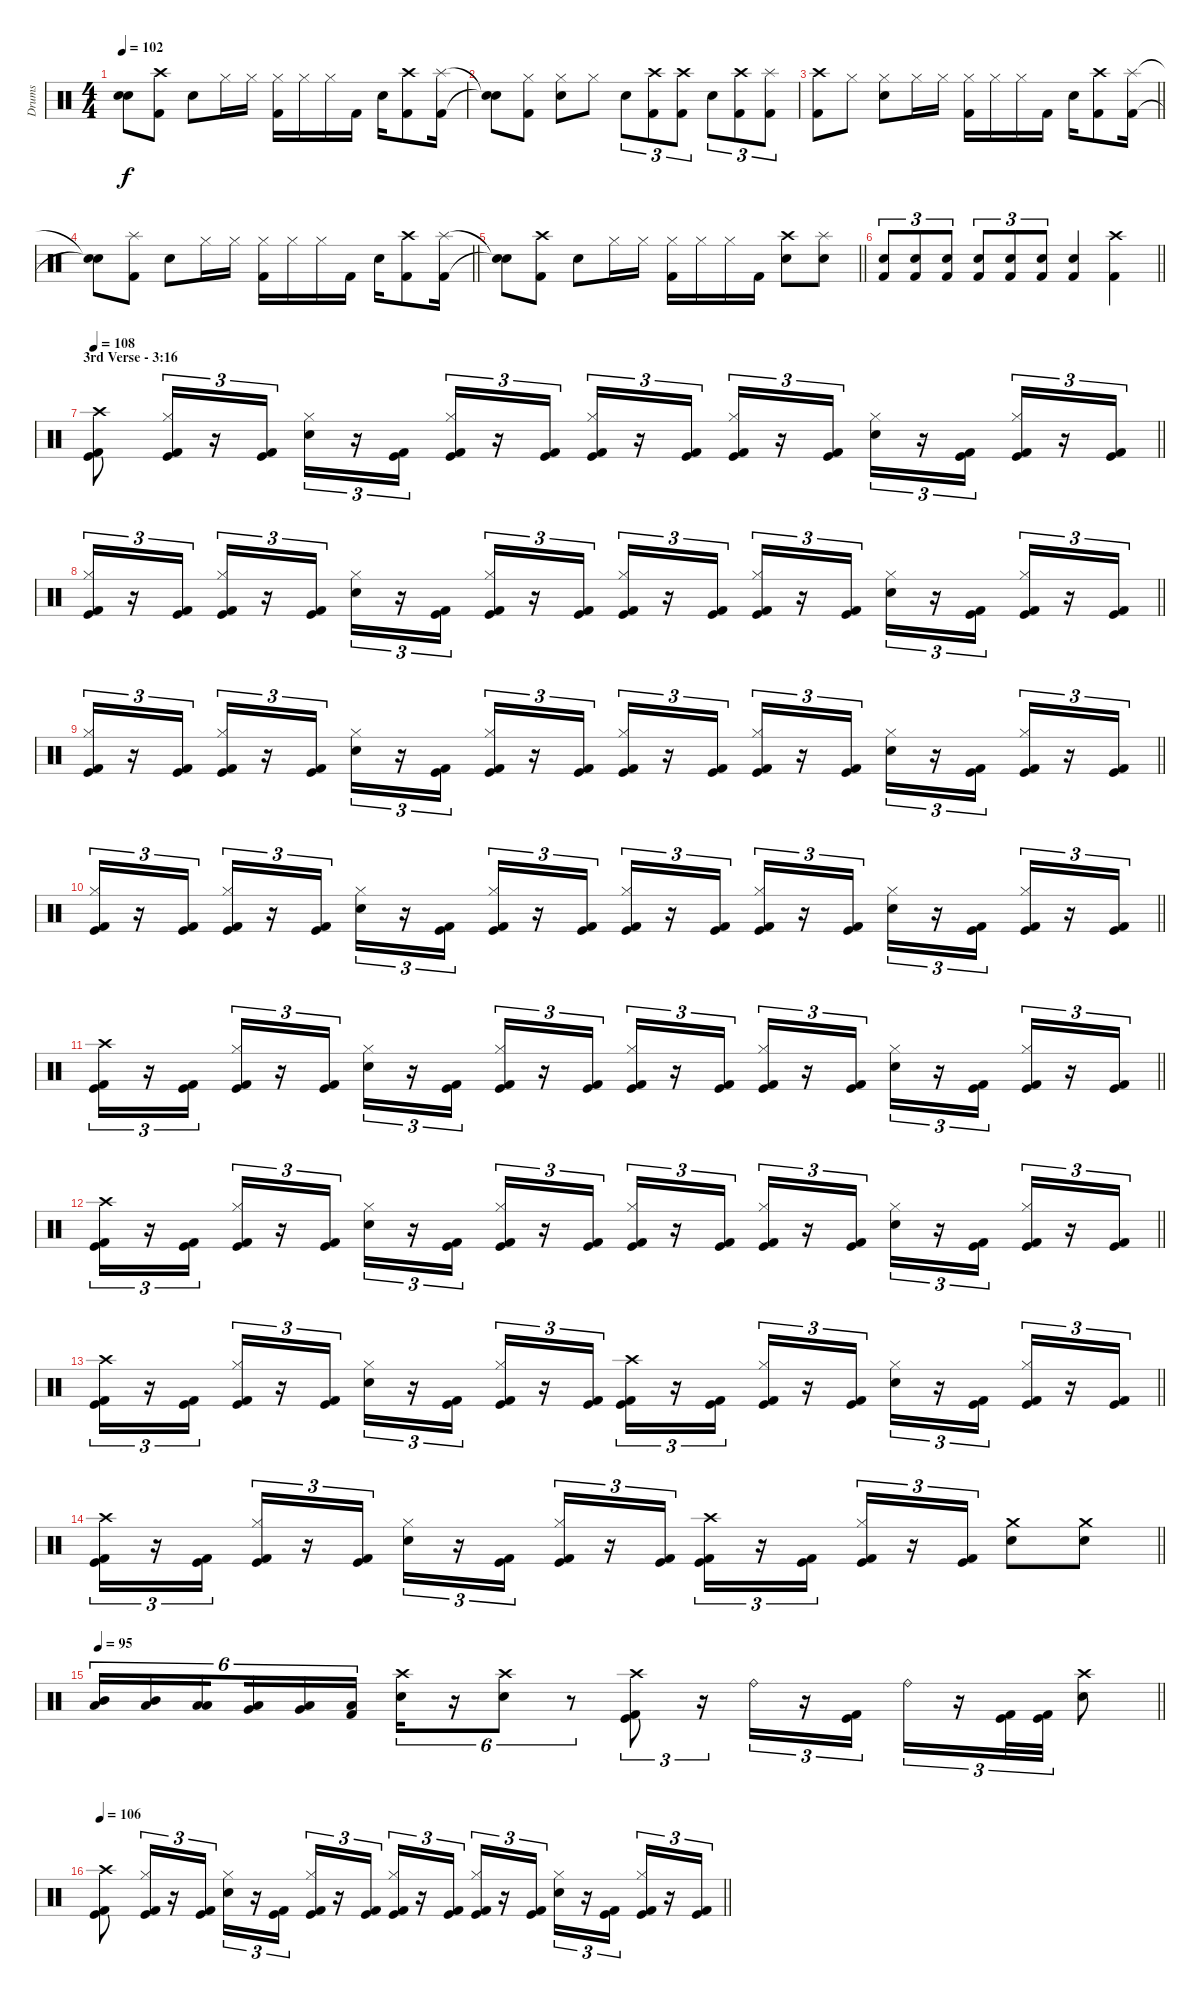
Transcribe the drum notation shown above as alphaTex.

\track ("Drums" "Drums") {instrument percussion}
\staff {score}
\articulation defaults
\ts (4 4)
\tempo 102
\clef neutral
\ks c
("Snare (hit)"{t} "Snare (hit)"{t}).8{dy f} ("Crash high (hit)" "Kick (hit) 2").8 "Electric Snare (hit)".8 "Hi-Hat (closed)".16 "Hi-Hat (closed)".16 ("Hi-Hat (closed)" "Kick (hit) 2").16 "Hi-Hat (closed)".16 "Hi-Hat (closed)".16 "Kick (hit) 2".16 "Electric Snare (hit)".16 ("Crash high (hit)" "Kick (hit) 2").8 ("Splash (hit)" "Kick (hit) 2").16 |
("Snare (hit)"{t} "Snare (hit)"{t}).8 ("Hi-Hat (closed)" "Kick (hit) 2").8 ("Hi-Hat (closed)" "Electric Snare (hit)").8 "Hi-Hat (closed)".8 "Electric Snare (hit)".8{tu (3 2)} ("Crash high (hit)" "Kick (hit) 2").8{tu (3 2)} ("Crash high (hit)" "Kick (hit) 2").8{tu (3 2)} "Electric Snare (hit)".8{tu (3 2)} ("Crash high (hit)" "Kick (hit) 2").8{tu (3 2)} ("Splash (hit)" "Kick (hit) 2").8{tu (3 2)} |
\barLineRight lightlight
("Crash high (hit)" "Kick (hit) 2").8 "Hi-Hat (closed)".8 ("Hi-Hat (closed)" "Electric Snare (hit)").8 "Hi-Hat (closed)".16 "Hi-Hat (closed)".16 ("Hi-Hat (closed)" "Kick (hit) 2").16 "Hi-Hat (closed)".16 "Hi-Hat (closed)".16 "Kick (hit) 2".16 "Electric Snare (hit)".16 ("Crash high (hit)" "Kick (hit) 2").8 ("Splash (hit)" "Kick (hit) 2").16 |
\barLineRight lightlight
("Snare (hit)"{t} "Snare (hit)"{t}).8 ("Splash (hit)" "Kick (hit) 2").8 "Electric Snare (hit)".8 "Hi-Hat (closed)".16 "Hi-Hat (closed)".16 ("Hi-Hat (closed)" "Kick (hit) 2").16 "Hi-Hat (closed)".16 "Hi-Hat (closed)".16 "Kick (hit) 2".16 "Electric Snare (hit)".16 ("Crash high (hit)" "Kick (hit) 2").8 ("Splash (hit)" "Kick (hit) 2").16 |
\barLineRight lightlight
("Snare (hit)"{t} "Snare (hit)"{t}).8 ("Crash high (hit)" "Kick (hit) 2").8 "Electric Snare (hit)".8 "Hi-Hat (closed)".16 "Hi-Hat (closed)".16 ("Hi-Hat (closed)" "Kick (hit) 2").16 "Hi-Hat (closed)".16 "Hi-Hat (closed)".16 "Kick (hit) 2".16 ("Crash high (hit)" "Electric Snare (hit)").8 ("Splash (hit)" "Electric Snare (hit)").8 |
\barLineRight lightlight
("Electric Snare (hit)" "Kick (hit) 2").8{tu (3 2)} ("Electric Snare (hit)" "Kick (hit) 2").8{tu (3 2)} ("Electric Snare (hit)" "Kick (hit) 2").8{tu (3 2)} ("Electric Snare (hit)" "Kick (hit) 2").8{tu (3 2)} ("Electric Snare (hit)" "Kick (hit) 2").8{tu (3 2)} ("Electric Snare (hit)" "Kick (hit) 2").8{tu (3 2)} ("Electric Snare (hit)" "Kick (hit) 2").4 ("Crash high (hit)" "Kick (hit) 2").4 |
\section ("" "3rd Verse - 3:16")
\tempo 108
\barLineRight lightlight
("Crash high (hit)" "Kick (hit)" "Kick (hit) 2").8 ("Hi-Hat (closed)" "Kick (hit)" "Kick (hit) 2").16{tu (3 2)} r.16{tu (3 2)} ("Kick (hit)" "Kick (hit) 2").16{tu (3 2)} ("Hi-Hat (closed)" "Electric Snare (hit)").16{tu (3 2)} r.16{tu (3 2)} ("Kick (hit)" "Kick (hit) 2").16{tu (3 2)} ("Hi-Hat (closed)" "Kick (hit)" "Kick (hit) 2").16{tu (3 2)} r.16{tu (3 2)} ("Kick (hit)" "Kick (hit) 2").16{tu (3 2)} ("Hi-Hat (closed)" "Kick (hit)" "Kick (hit) 2").16{tu (3 2)} r.16{tu (3 2)} ("Kick (hit)" "Kick (hit) 2").16{tu (3 2)} ("Hi-Hat (closed)" "Kick (hit)" "Kick (hit) 2").16{tu (3 2)} r.16{tu (3 2)} ("Kick (hit)" "Kick (hit) 2").16{tu (3 2)} ("Hi-Hat (closed)" "Electric Snare (hit)").16{tu (3 2)} r.16{tu (3 2)} ("Kick (hit)" "Kick (hit) 2").16{tu (3 2)} ("Hi-Hat (closed)" "Kick (hit)" "Kick (hit) 2").16{tu (3 2)} r.16{tu (3 2)} ("Kick (hit)" "Kick (hit) 2").16{tu (3 2)} |
\barLineRight lightlight
("Hi-Hat (closed)" "Kick (hit)" "Kick (hit) 2").16{tu (3 2)} r.16{tu (3 2)} ("Kick (hit)" "Kick (hit) 2").16{tu (3 2)} ("Hi-Hat (closed)" "Kick (hit)" "Kick (hit) 2").16{tu (3 2)} r.16{tu (3 2)} ("Kick (hit)" "Kick (hit) 2").16{tu (3 2)} ("Hi-Hat (closed)" "Electric Snare (hit)").16{tu (3 2)} r.16{tu (3 2)} ("Kick (hit)" "Kick (hit) 2").16{tu (3 2)} ("Hi-Hat (closed)" "Kick (hit)" "Kick (hit) 2").16{tu (3 2)} r.16{tu (3 2)} ("Kick (hit)" "Kick (hit) 2").16{tu (3 2)} ("Hi-Hat (closed)" "Kick (hit)" "Kick (hit) 2").16{tu (3 2)} r.16{tu (3 2)} ("Kick (hit)" "Kick (hit) 2").16{tu (3 2)} ("Hi-Hat (closed)" "Kick (hit)" "Kick (hit) 2").16{tu (3 2)} r.16{tu (3 2)} ("Kick (hit)" "Kick (hit) 2").16{tu (3 2)} ("Hi-Hat (closed)" "Electric Snare (hit)").16{tu (3 2)} r.16{tu (3 2)} ("Kick (hit)" "Kick (hit) 2").16{tu (3 2)} ("Hi-Hat (closed)" "Kick (hit)" "Kick (hit) 2").16{tu (3 2)} r.16{tu (3 2)} ("Kick (hit)" "Kick (hit) 2").16{tu (3 2)} |
\barLineRight lightlight
("Hi-Hat (closed)" "Kick (hit)" "Kick (hit) 2").16{tu (3 2)} r.16{tu (3 2)} ("Kick (hit)" "Kick (hit) 2").16{tu (3 2)} ("Hi-Hat (closed)" "Kick (hit)" "Kick (hit) 2").16{tu (3 2)} r.16{tu (3 2)} ("Kick (hit)" "Kick (hit) 2").16{tu (3 2)} ("Hi-Hat (closed)" "Electric Snare (hit)").16{tu (3 2)} r.16{tu (3 2)} ("Kick (hit)" "Kick (hit) 2").16{tu (3 2)} ("Hi-Hat (closed)" "Kick (hit)" "Kick (hit) 2").16{tu (3 2)} r.16{tu (3 2)} ("Kick (hit)" "Kick (hit) 2").16{tu (3 2)} ("Hi-Hat (closed)" "Kick (hit)" "Kick (hit) 2").16{tu (3 2)} r.16{tu (3 2)} ("Kick (hit)" "Kick (hit) 2").16{tu (3 2)} ("Hi-Hat (closed)" "Kick (hit)" "Kick (hit) 2").16{tu (3 2)} r.16{tu (3 2)} ("Kick (hit)" "Kick (hit) 2").16{tu (3 2)} ("Hi-Hat (closed)" "Electric Snare (hit)").16{tu (3 2)} r.16{tu (3 2)} ("Kick (hit)" "Kick (hit) 2").16{tu (3 2)} ("Hi-Hat (closed)" "Kick (hit)" "Kick (hit) 2").16{tu (3 2)} r.16{tu (3 2)} ("Kick (hit)" "Kick (hit) 2").16{tu (3 2)} |
\barLineRight lightlight
("Hi-Hat (closed)" "Kick (hit)" "Kick (hit) 2").16{tu (3 2)} r.16{tu (3 2)} ("Kick (hit)" "Kick (hit) 2").16{tu (3 2)} ("Hi-Hat (closed)" "Kick (hit)" "Kick (hit) 2").16{tu (3 2)} r.16{tu (3 2)} ("Kick (hit)" "Kick (hit) 2").16{tu (3 2)} ("Hi-Hat (closed)" "Electric Snare (hit)").16{tu (3 2)} r.16{tu (3 2)} ("Kick (hit)" "Kick (hit) 2").16{tu (3 2)} ("Hi-Hat (closed)" "Kick (hit)" "Kick (hit) 2").16{tu (3 2)} r.16{tu (3 2)} ("Kick (hit)" "Kick (hit) 2").16{tu (3 2)} ("Hi-Hat (closed)" "Kick (hit)" "Kick (hit) 2").16{tu (3 2)} r.16{tu (3 2)} ("Kick (hit)" "Kick (hit) 2").16{tu (3 2)} ("Hi-Hat (closed)" "Kick (hit)" "Kick (hit) 2").16{tu (3 2)} r.16{tu (3 2)} ("Kick (hit)" "Kick (hit) 2").16{tu (3 2)} ("Hi-Hat (closed)" "Electric Snare (hit)").16{tu (3 2)} r.16{tu (3 2)} ("Kick (hit)" "Kick (hit) 2").16{tu (3 2)} ("Hi-Hat (closed)" "Kick (hit)" "Kick (hit) 2").16{tu (3 2)} r.16{tu (3 2)} ("Kick (hit)" "Kick (hit) 2").16{tu (3 2)} |
\barLineRight lightlight
("Crash high (hit)" "Kick (hit)" "Kick (hit) 2").16{tu (3 2)} r.16{tu (3 2)} ("Kick (hit)" "Kick (hit) 2").16{tu (3 2)} ("Hi-Hat (closed)" "Kick (hit)" "Kick (hit) 2").16{tu (3 2)} r.16{tu (3 2)} ("Kick (hit)" "Kick (hit) 2").16{tu (3 2)} ("Hi-Hat (closed)" "Electric Snare (hit)").16{tu (3 2)} r.16{tu (3 2)} ("Kick (hit)" "Kick (hit) 2").16{tu (3 2)} ("Hi-Hat (closed)" "Kick (hit)" "Kick (hit) 2").16{tu (3 2)} r.16{tu (3 2)} ("Kick (hit)" "Kick (hit) 2").16{tu (3 2)} ("Hi-Hat (closed)" "Kick (hit)" "Kick (hit) 2").16{tu (3 2)} r.16{tu (3 2)} ("Kick (hit)" "Kick (hit) 2").16{tu (3 2)} ("Hi-Hat (closed)" "Kick (hit)" "Kick (hit) 2").16{tu (3 2)} r.16{tu (3 2)} ("Kick (hit)" "Kick (hit) 2").16{tu (3 2)} ("Hi-Hat (closed)" "Electric Snare (hit)").16{tu (3 2)} r.16{tu (3 2)} ("Kick (hit)" "Kick (hit) 2").16{tu (3 2)} ("Hi-Hat (closed)" "Kick (hit)" "Kick (hit) 2").16{tu (3 2)} r.16{tu (3 2)} ("Kick (hit)" "Kick (hit) 2").16{tu (3 2)} |
\barLineRight lightlight
("Crash high (hit)" "Kick (hit)" "Kick (hit) 2").16{tu (3 2)} r.16{tu (3 2)} ("Kick (hit)" "Kick (hit) 2").16{tu (3 2)} ("Hi-Hat (closed)" "Kick (hit)" "Kick (hit) 2").16{tu (3 2)} r.16{tu (3 2)} ("Kick (hit)" "Kick (hit) 2").16{tu (3 2)} ("Hi-Hat (closed)" "Electric Snare (hit)").16{tu (3 2)} r.16{tu (3 2)} ("Kick (hit)" "Kick (hit) 2").16{tu (3 2)} ("Hi-Hat (closed)" "Kick (hit)" "Kick (hit) 2").16{tu (3 2)} r.16{tu (3 2)} ("Kick (hit)" "Kick (hit) 2").16{tu (3 2)} ("Hi-Hat (closed)" "Kick (hit)" "Kick (hit) 2").16{tu (3 2)} r.16{tu (3 2)} ("Kick (hit)" "Kick (hit) 2").16{tu (3 2)} ("Hi-Hat (closed)" "Kick (hit)" "Kick (hit) 2").16{tu (3 2)} r.16{tu (3 2)} ("Kick (hit)" "Kick (hit) 2").16{tu (3 2)} ("Hi-Hat (closed)" "Electric Snare (hit)").16{tu (3 2)} r.16{tu (3 2)} ("Kick (hit)" "Kick (hit) 2").16{tu (3 2)} ("Hi-Hat (closed)" "Kick (hit)" "Kick (hit) 2").16{tu (3 2)} r.16{tu (3 2)} ("Kick (hit)" "Kick (hit) 2").16{tu (3 2)} |
\barLineRight lightlight
("Crash high (hit)" "Kick (hit)" "Kick (hit) 2").16{tu (3 2)} r.16{tu (3 2)} ("Kick (hit)" "Kick (hit) 2").16{tu (3 2)} ("Hi-Hat (closed)" "Kick (hit)" "Kick (hit) 2").16{tu (3 2)} r.16{tu (3 2)} ("Kick (hit)" "Kick (hit) 2").16{tu (3 2)} ("Hi-Hat (closed)" "Electric Snare (hit)").16{tu (3 2)} r.16{tu (3 2)} ("Kick (hit)" "Kick (hit) 2").16{tu (3 2)} ("Hi-Hat (closed)" "Kick (hit)" "Kick (hit) 2").16{tu (3 2)} r.16{tu (3 2)} ("Kick (hit)" "Kick (hit) 2").16{tu (3 2)} ("Crash high (hit)" "Kick (hit)" "Kick (hit) 2").16{tu (3 2)} r.16{tu (3 2)} ("Kick (hit)" "Kick (hit) 2").16{tu (3 2)} ("Hi-Hat (closed)" "Kick (hit)" "Kick (hit) 2").16{tu (3 2)} r.16{tu (3 2)} ("Kick (hit)" "Kick (hit) 2").16{tu (3 2)} ("Hi-Hat (closed)" "Electric Snare (hit)").16{tu (3 2)} r.16{tu (3 2)} ("Kick (hit)" "Kick (hit) 2").16{tu (3 2)} ("Hi-Hat (closed)" "Kick (hit)" "Kick (hit) 2").16{tu (3 2)} r.16{tu (3 2)} ("Kick (hit)" "Kick (hit) 2").16{tu (3 2)} |
\barLineRight lightlight
("Crash high (hit)" "Kick (hit)" "Kick (hit) 2").16{tu (3 2)} r.16{tu (3 2)} ("Kick (hit)" "Kick (hit) 2").16{tu (3 2)} ("Hi-Hat (closed)" "Kick (hit)" "Kick (hit) 2").16{tu (3 2)} r.16{tu (3 2)} ("Kick (hit)" "Kick (hit) 2").16{tu (3 2)} ("Hi-Hat (closed)" "Electric Snare (hit)").16{tu (3 2)} r.16{tu (3 2)} ("Kick (hit)" "Kick (hit) 2").16{tu (3 2)} ("Hi-Hat (closed)" "Kick (hit)" "Kick (hit) 2").16{tu (3 2)} r.16{tu (3 2)} ("Kick (hit)" "Kick (hit) 2").16{tu (3 2)} ("Crash high (hit)" "Kick (hit)" "Kick (hit) 2").16{tu (3 2)} r.16{tu (3 2)} ("Kick (hit)" "Kick (hit) 2").16{tu (3 2)} ("Hi-Hat (closed)" "Kick (hit)" "Kick (hit) 2").16{tu (3 2)} r.16{tu (3 2)} ("Kick (hit)" "Kick (hit) 2").16{tu (3 2)} ("Crash medium (hit)" "Electric Snare (hit)").8 ("Crash medium (hit)" "Electric Snare (hit)").8 |
\tempo 95
\barLineRight lightlight
("Mid Tom (hit)" "Low Tom (hit)").16{tu (6 4)} ("Mid Tom (hit)" "Low Tom (hit)").16{tu (6 4)} ("Low Tom (hit)" "Low Tom (hit)").16{tu (6 4) beam splitsecondary} ("Very Low Tom (hit)" "Low Tom (hit)").16{tu (6 4)} ("Very Low Tom (hit)" "Low Tom (hit)").16{tu (6 4)} ("Low Floor Tom (hit)" "Kick (hit) 2").16{tu (6 4)} ("Crash high (hit)" "Electric Snare (hit)").16{tu (6 4)} r.16{tu (6 4)} ("Crash high (hit)" "Electric Snare (hit)").8{tu (6 4)} r.8{tu (6 4)} ("Crash high (hit)" "Kick (hit)" "Kick (hit) 2").8{tu (3 2)} r.16{tu (3 2)} "Ride (bell)".16{tu (3 2)} r.16{tu (3 2)} ("Kick (hit)" "Kick (hit) 2").16{tu (3 2)} "Ride (bell)".16{tu (3 2)} r.16{tu (3 2)} ("Kick (hit)" "Kick (hit) 2").32{tu (3 2)} ("Kick (hit)" "Kick (hit) 2").32{tu (3 2)} ("Crash high (hit)" "Electric Snare (hit)").8 |
\tempo 106
\barLineRight lightlight
("Crash high (hit)" "Kick (hit)" "Kick (hit) 2").8 ("Hi-Hat (closed)" "Kick (hit)" "Kick (hit) 2").16{tu (3 2)} r.16{tu (3 2)} ("Kick (hit)" "Kick (hit) 2").16{tu (3 2)} ("Hi-Hat (closed)" "Electric Snare (hit)").16{tu (3 2)} r.16{tu (3 2)} ("Kick (hit)" "Kick (hit) 2").16{tu (3 2)} ("Hi-Hat (closed)" "Kick (hit)" "Kick (hit) 2").16{tu (3 2)} r.16{tu (3 2)} ("Kick (hit)" "Kick (hit) 2").16{tu (3 2)} ("Hi-Hat (closed)" "Kick (hit)" "Kick (hit) 2").16{tu (3 2)} r.16{tu (3 2)} ("Kick (hit)" "Kick (hit) 2").16{tu (3 2)} ("Hi-Hat (closed)" "Kick (hit)" "Kick (hit) 2").16{tu (3 2)} r.16{tu (3 2)} ("Kick (hit)" "Kick (hit) 2").16{tu (3 2)} ("Hi-Hat (closed)" "Electric Snare (hit)").16{tu (3 2)} r.16{tu (3 2)} ("Kick (hit)" "Kick (hit) 2").16{tu (3 2)} ("Hi-Hat (closed)" "Kick (hit)" "Kick (hit) 2").16{tu (3 2)} r.16{tu (3 2)} ("Kick (hit)" "Kick (hit) 2").16{tu (3 2)}
